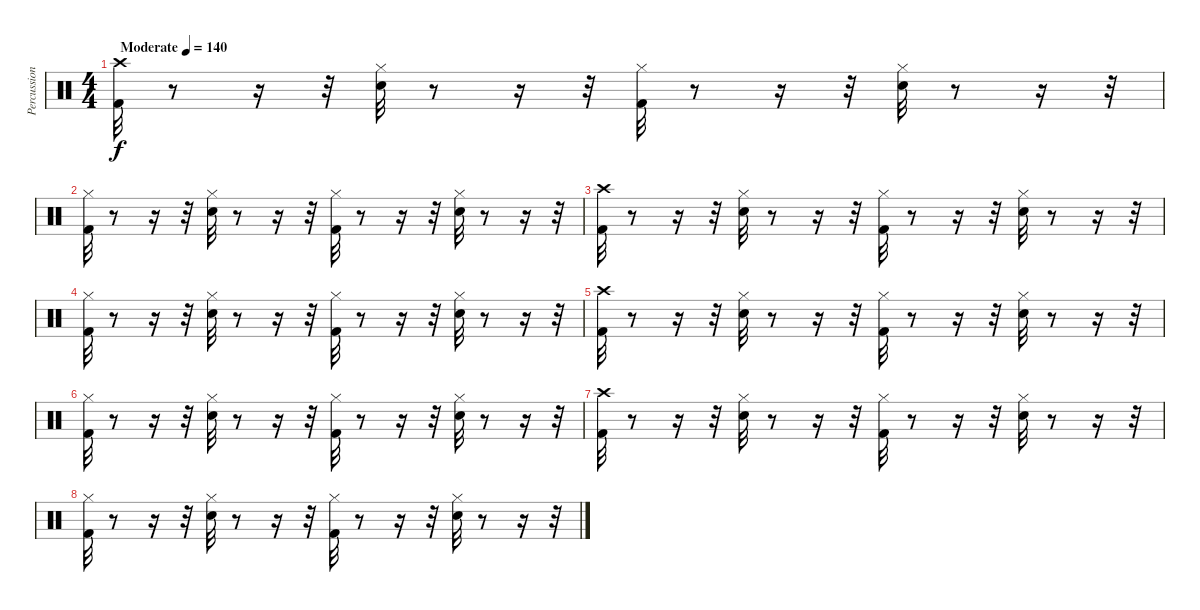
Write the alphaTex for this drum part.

\track ("Percussion" "Percussion") {instrument percussion}
\staff {score}
\articulation defaults
\ts (4 4)
\tempo (140 "Moderate")
\clef neutral
\ks c
("Kick (hit) 2" "Crash high (hit)").32{dy f} r.8 r.16 r.32 ("Hi-Hat (closed)" "Snare (hit) 2").32 r.8 r.16 r.32 ("Kick (hit) 2" "Hi-Hat (closed)").32 r.8 r.16 r.32 ("Snare (hit) 2" "Hi-Hat (closed)").32 r.8 r.16 r.32 |
("Kick (hit) 2" "Hi-Hat (closed)").32 r.8 r.16 r.32 ("Snare (hit) 2" "Hi-Hat (closed)").32 r.8 r.16 r.32 ("Kick (hit) 2" "Hi-Hat (closed)").32 r.8 r.16 r.32 ("Snare (hit) 2" "Hi-Hat (closed)").32 r.8 r.16 r.32 |
("Kick (hit) 2" "Crash high (hit)").32 r.8 r.16 r.32 ("Hi-Hat (closed)" "Snare (hit) 2").32 r.8 r.16 r.32 ("Kick (hit) 2" "Hi-Hat (closed)").32 r.8 r.16 r.32 ("Snare (hit) 2" "Hi-Hat (closed)").32 r.8 r.16 r.32 |
("Kick (hit) 2" "Hi-Hat (closed)").32 r.8 r.16 r.32 ("Snare (hit) 2" "Hi-Hat (closed)").32 r.8 r.16 r.32 ("Kick (hit) 2" "Hi-Hat (closed)").32 r.8 r.16 r.32 ("Snare (hit) 2" "Hi-Hat (closed)").32 r.8 r.16 r.32 |
("Kick (hit) 2" "Crash high (hit)").32 r.8 r.16 r.32 ("Hi-Hat (closed)" "Snare (hit) 2").32 r.8 r.16 r.32 ("Kick (hit) 2" "Hi-Hat (closed)").32 r.8 r.16 r.32 ("Snare (hit) 2" "Hi-Hat (closed)").32 r.8 r.16 r.32 |
("Kick (hit) 2" "Hi-Hat (closed)").32 r.8 r.16 r.32 ("Snare (hit) 2" "Hi-Hat (closed)").32 r.8 r.16 r.32 ("Kick (hit) 2" "Hi-Hat (closed)").32 r.8 r.16 r.32 ("Snare (hit) 2" "Hi-Hat (closed)").32 r.8 r.16 r.32 |
("Kick (hit) 2" "Crash high (hit)").32 r.8 r.16 r.32 ("Hi-Hat (closed)" "Snare (hit) 2").32 r.8 r.16 r.32 ("Kick (hit) 2" "Hi-Hat (closed)").32 r.8 r.16 r.32 ("Snare (hit) 2" "Hi-Hat (closed)").32 r.8 r.16 r.32 |
("Kick (hit) 2" "Hi-Hat (closed)").32 r.8 r.16 r.32 ("Snare (hit) 2" "Hi-Hat (closed)").32 r.8 r.16 r.32 ("Kick (hit) 2" "Hi-Hat (closed)").32 r.8 r.16 r.32 ("Snare (hit) 2" "Hi-Hat (closed)").32 r.8 r.16 r.32
